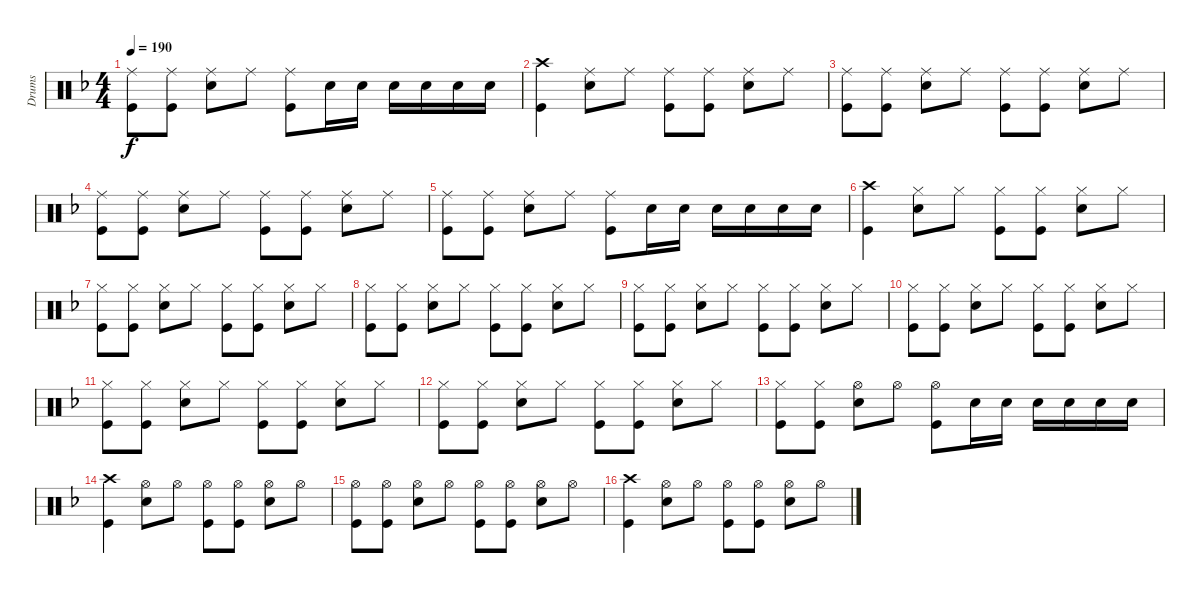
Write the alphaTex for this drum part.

\track ("Drums" "Drums") {instrument percussion}
\staff {score}
\articulation defaults
\ts (4 4)
\tempo 190
\clef neutral
\ks f
("Ride (middle)" "Kick (hit)").8{dy f} ("Ride (middle)" "Kick (hit)").8 ("Ride (middle)" "Snare (hit) 2").8 "Ride (middle)".8 ("Kick (hit)" "Ride (middle)").8 "Snare (hit) 2".16 "Snare (hit) 2".16 "Snare (hit) 2".16 "Snare (hit) 2".16 "Snare (hit) 2".16 "Snare (hit) 2".16 |
("Kick (hit)" "Crash high (hit)").4 ("Snare (hit) 2" "Ride (middle)").8 "Ride (middle)".8 ("Ride (middle)" "Kick (hit)").8 ("Ride (middle)" "Kick (hit)").8 ("Snare (hit) 2" "Ride (middle)").8 "Ride (middle)".8 |
("Kick (hit)" "Ride (middle)").8 ("Ride (middle)" "Kick (hit)").8 ("Snare (hit) 2" "Ride (middle)").8 "Ride (middle)".8 ("Ride (middle)" "Kick (hit)").8 ("Ride (middle)" "Kick (hit)").8 ("Ride (middle)" "Snare (hit) 2").8 "Ride (middle)".8 |
("Kick (hit)" "Ride (middle)").8 ("Ride (middle)" "Kick (hit)").8 ("Snare (hit) 2" "Ride (middle)").8 "Ride (middle)".8 ("Ride (middle)" "Kick (hit)").8 ("Ride (middle)" "Kick (hit)").8 ("Ride (middle)" "Snare (hit) 2").8 "Ride (middle)".8 |
("Ride (middle)" "Kick (hit)").8 ("Ride (middle)" "Kick (hit)").8 ("Ride (middle)" "Snare (hit) 2").8 "Ride (middle)".8 ("Kick (hit)" "Ride (middle)").8 "Snare (hit) 2".16 "Snare (hit) 2".16 "Snare (hit) 2".16 "Snare (hit) 2".16 "Snare (hit) 2".16 "Snare (hit) 2".16 |
("Kick (hit)" "Crash high (hit)").4 ("Hi-Hat (closed)" "Snare (hit) 2").8 "Hi-Hat (closed)".8 ("Hi-Hat (closed)" "Kick (hit)").8 ("Hi-Hat (closed)" "Kick (hit)").8 ("Hi-Hat (closed)" "Snare (hit) 2").8 "Hi-Hat (closed)".8 |
("Kick (hit)" "Hi-Hat (closed)").8 ("Hi-Hat (closed)" "Kick (hit)").8 ("Hi-Hat (closed)" "Snare (hit) 2").8 "Hi-Hat (closed)".8 ("Hi-Hat (closed)" "Kick (hit)").8 ("Hi-Hat (closed)" "Kick (hit)").8 ("Hi-Hat (closed)" "Snare (hit) 2").8 "Hi-Hat (closed)".8 |
("Kick (hit)" "Hi-Hat (closed)").8 ("Hi-Hat (closed)" "Kick (hit)").8 ("Hi-Hat (closed)" "Snare (hit) 2").8 "Hi-Hat (closed)".8 ("Hi-Hat (closed)" "Kick (hit)").8 ("Hi-Hat (closed)" "Kick (hit)").8 ("Hi-Hat (closed)" "Snare (hit) 2").8 "Hi-Hat (closed)".8 |
("Kick (hit)" "Hi-Hat (closed)").8 ("Hi-Hat (closed)" "Kick (hit)").8 ("Hi-Hat (closed)" "Snare (hit) 2").8 "Hi-Hat (closed)".8 ("Hi-Hat (closed)" "Kick (hit)").8 ("Hi-Hat (closed)" "Kick (hit)").8 ("Hi-Hat (closed)" "Snare (hit) 2").8 "Hi-Hat (closed)".8 |
("Kick (hit)" "Hi-Hat (closed)").8 ("Hi-Hat (closed)" "Kick (hit)").8 ("Hi-Hat (closed)" "Snare (hit) 2").8 "Hi-Hat (closed)".8 ("Hi-Hat (closed)" "Kick (hit)").8 ("Hi-Hat (closed)" "Kick (hit)").8 ("Hi-Hat (closed)" "Snare (hit) 2").8 "Hi-Hat (closed)".8 |
("Kick (hit)" "Hi-Hat (closed)").8 ("Hi-Hat (closed)" "Kick (hit)").8 ("Hi-Hat (closed)" "Snare (hit) 2").8 "Hi-Hat (closed)".8 ("Hi-Hat (closed)" "Kick (hit)").8 ("Hi-Hat (closed)" "Kick (hit)").8 ("Hi-Hat (closed)" "Snare (hit) 2").8 "Hi-Hat (closed)".8 |
("Kick (hit)" "Hi-Hat (closed)").8 ("Hi-Hat (closed)" "Kick (hit)").8 ("Hi-Hat (closed)" "Snare (hit) 2").8 "Hi-Hat (closed)".8 ("Hi-Hat (closed)" "Kick (hit)").8 ("Hi-Hat (closed)" "Kick (hit)").8 ("Hi-Hat (closed)" "Snare (hit) 2").8 "Hi-Hat (closed)".8 |
("Hi-Hat (closed)" "Kick (hit)").8 ("Hi-Hat (closed)" "Kick (hit)").8 ("Snare (hit) 2" "Hi-Hat (open)").8 "Hi-Hat (open)".8 ("Hi-Hat (open)" "Kick (hit)").8 "Snare (hit) 2".16 "Snare (hit) 2".16 "Snare (hit) 2".16 "Snare (hit) 2".16 "Snare (hit) 2".16 "Snare (hit) 2".16 |
("Kick (hit)" "Crash high (hit)").4 ("Snare (hit) 2" "Hi-Hat (open)").8 "Hi-Hat (open)".8 ("Hi-Hat (open)" "Kick (hit)").8 ("Hi-Hat (open)" "Kick (hit)").8 ("Hi-Hat (open)" "Snare (hit) 2").8 "Hi-Hat (open)".8 |
("Kick (hit)" "Hi-Hat (open)").8 ("Hi-Hat (open)" "Kick (hit)").8 ("Snare (hit) 2" "Hi-Hat (open)").8 "Hi-Hat (open)".8 ("Hi-Hat (open)" "Kick (hit)").8 ("Hi-Hat (open)" "Kick (hit)").8 ("Hi-Hat (open)" "Snare (hit) 2").8 "Hi-Hat (open)".8 |
("Kick (hit)" "Crash high (hit)").4 ("Snare (hit) 2" "Hi-Hat (open)").8 "Hi-Hat (open)".8 ("Hi-Hat (open)" "Kick (hit)").8 ("Hi-Hat (open)" "Kick (hit)").8 ("Hi-Hat (open)" "Snare (hit) 2").8 "Hi-Hat (open)".8
